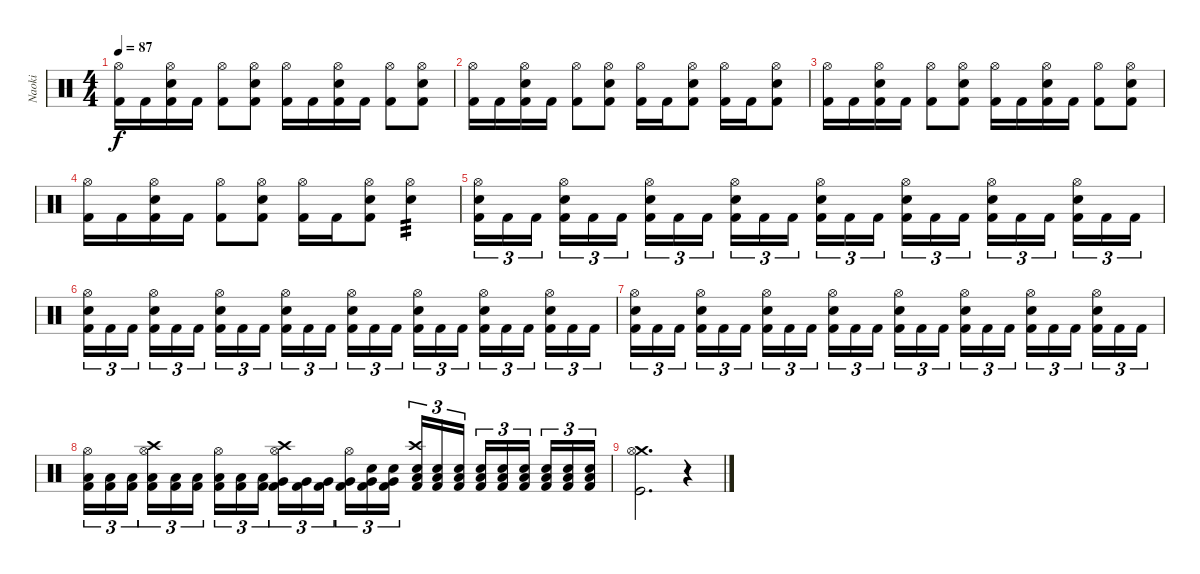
\track ("Naoki" "Naoki") {instrument percussion}
\staff {score}
\articulation defaults
\ts (4 4)
\tempo 87
\clef neutral
\ks c
("Hi-Hat (open)" "Kick (hit) 2").16{dy f} "Kick (hit) 2".16 ("Hi-Hat (open)" "Electric Snare (hit)" "Kick (hit) 2").16 "Kick (hit) 2".16 ("Hi-Hat (open)" "Kick (hit) 2").8 ("Hi-Hat (open)" "Electric Snare (hit)" "Kick (hit) 2").8 ("Hi-Hat (open)" "Kick (hit) 2").16 "Kick (hit) 2".16 ("Hi-Hat (open)" "Electric Snare (hit)" "Kick (hit) 2").16 "Kick (hit) 2".16 ("Hi-Hat (open)" "Kick (hit) 2").8 ("Hi-Hat (open)" "Electric Snare (hit)" "Kick (hit) 2").8 |
("Hi-Hat (open)" "Kick (hit) 2").16 "Kick (hit) 2".16 ("Hi-Hat (open)" "Electric Snare (hit)" "Kick (hit) 2").16 "Kick (hit) 2".16 ("Hi-Hat (open)" "Kick (hit) 2").8 ("Hi-Hat (open)" "Electric Snare (hit)" "Kick (hit) 2").8 ("Hi-Hat (open)" "Kick (hit) 2").16 "Kick (hit) 2".16 ("Hi-Hat (open)" "Electric Snare (hit)" "Kick (hit) 2").8 ("Hi-Hat (open)" "Kick (hit) 2").16 "Kick (hit) 2".16 ("Hi-Hat (open)" "Electric Snare (hit)" "Kick (hit) 2").8 |
("Hi-Hat (open)" "Kick (hit) 2").16 "Kick (hit) 2".16 ("Hi-Hat (open)" "Electric Snare (hit)" "Kick (hit) 2").16 "Kick (hit) 2".16 ("Hi-Hat (open)" "Kick (hit) 2").8 ("Hi-Hat (open)" "Electric Snare (hit)" "Kick (hit) 2").8 ("Hi-Hat (open)" "Kick (hit) 2").16 "Kick (hit) 2".16 ("Hi-Hat (open)" "Electric Snare (hit)" "Kick (hit) 2").16 "Kick (hit) 2".16 ("Hi-Hat (open)" "Kick (hit) 2").8 ("Hi-Hat (open)" "Electric Snare (hit)" "Kick (hit) 2").8 |
("Hi-Hat (open)" "Kick (hit) 2").16 "Kick (hit) 2".16 ("Hi-Hat (open)" "Electric Snare (hit)" "Kick (hit) 2").16 "Kick (hit) 2".16 ("Hi-Hat (open)" "Kick (hit) 2").8 ("Hi-Hat (open)" "Electric Snare (hit)" "Kick (hit) 2").8 ("Hi-Hat (open)" "Kick (hit) 2").16 "Kick (hit) 2".16 ("Hi-Hat (open)" "Electric Snare (hit)" "Kick (hit) 2").8 ("Hi-Hat (open)" "Electric Snare (hit)").4{tp 3} |
("Hi-Hat (open)" "Electric Snare (hit)" "Kick (hit) 2").16{tu (3 2)} "Kick (hit) 2".16{tu (3 2)} "Kick (hit) 2".16{tu (3 2) beam splitsecondary} ("Hi-Hat (open)" "Electric Snare (hit)" "Kick (hit) 2").16{tu (3 2)} "Kick (hit) 2".16{tu (3 2)} "Kick (hit) 2".16{tu (3 2)} ("Hi-Hat (open)" "Electric Snare (hit)" "Kick (hit) 2").16{tu (3 2)} "Kick (hit) 2".16{tu (3 2)} "Kick (hit) 2".16{tu (3 2) beam splitsecondary} ("Hi-Hat (open)" "Electric Snare (hit)" "Kick (hit) 2").16{tu (3 2)} "Kick (hit) 2".16{tu (3 2)} "Kick (hit) 2".16{tu (3 2)} ("Hi-Hat (open)" "Electric Snare (hit)" "Kick (hit) 2").16{tu (3 2)} "Kick (hit) 2".16{tu (3 2)} "Kick (hit) 2".16{tu (3 2) beam splitsecondary} ("Hi-Hat (open)" "Electric Snare (hit)" "Kick (hit) 2").16{tu (3 2)} "Kick (hit) 2".16{tu (3 2)} "Kick (hit) 2".16{tu (3 2)} ("Hi-Hat (open)" "Electric Snare (hit)" "Kick (hit) 2").16{tu (3 2)} "Kick (hit) 2".16{tu (3 2)} "Kick (hit) 2".16{tu (3 2) beam splitsecondary} ("Hi-Hat (open)" "Electric Snare (hit)" "Kick (hit) 2").16{tu (3 2)} "Kick (hit) 2".16{tu (3 2)} "Kick (hit) 2".16{tu (3 2)} |
("Hi-Hat (open)" "Electric Snare (hit)" "Kick (hit) 2").16{tu (3 2)} "Kick (hit) 2".16{tu (3 2)} "Kick (hit) 2".16{tu (3 2) beam splitsecondary} ("Hi-Hat (open)" "Electric Snare (hit)" "Kick (hit) 2").16{tu (3 2)} "Kick (hit) 2".16{tu (3 2)} "Kick (hit) 2".16{tu (3 2)} ("Hi-Hat (open)" "Electric Snare (hit)" "Kick (hit) 2").16{tu (3 2)} "Kick (hit) 2".16{tu (3 2)} "Kick (hit) 2".16{tu (3 2) beam splitsecondary} ("Hi-Hat (open)" "Electric Snare (hit)" "Kick (hit) 2").16{tu (3 2)} "Kick (hit) 2".16{tu (3 2)} "Kick (hit) 2".16{tu (3 2)} ("Hi-Hat (open)" "Electric Snare (hit)" "Kick (hit) 2").16{tu (3 2)} "Kick (hit) 2".16{tu (3 2)} "Kick (hit) 2".16{tu (3 2) beam splitsecondary} ("Hi-Hat (open)" "Electric Snare (hit)" "Kick (hit) 2").16{tu (3 2)} "Kick (hit) 2".16{tu (3 2)} "Kick (hit) 2".16{tu (3 2)} ("Hi-Hat (open)" "Electric Snare (hit)" "Kick (hit) 2").16{tu (3 2)} "Kick (hit) 2".16{tu (3 2)} "Kick (hit) 2".16{tu (3 2) beam splitsecondary} ("Hi-Hat (open)" "Electric Snare (hit)" "Kick (hit) 2").16{tu (3 2)} "Kick (hit) 2".16{tu (3 2)} "Kick (hit) 2".16{tu (3 2)} |
("Hi-Hat (open)" "Electric Snare (hit)" "Kick (hit) 2").16{tu (3 2)} "Kick (hit) 2".16{tu (3 2)} "Kick (hit) 2".16{tu (3 2) beam splitsecondary} ("Hi-Hat (open)" "Electric Snare (hit)" "Kick (hit) 2").16{tu (3 2)} "Kick (hit) 2".16{tu (3 2)} "Kick (hit) 2".16{tu (3 2)} ("Hi-Hat (open)" "Electric Snare (hit)" "Kick (hit) 2").16{tu (3 2)} "Kick (hit) 2".16{tu (3 2)} "Kick (hit) 2".16{tu (3 2) beam splitsecondary} ("Hi-Hat (open)" "Electric Snare (hit)" "Kick (hit) 2").16{tu (3 2)} "Kick (hit) 2".16{tu (3 2)} "Kick (hit) 2".16{tu (3 2)} ("Hi-Hat (open)" "Electric Snare (hit)" "Kick (hit) 2").16{tu (3 2)} "Kick (hit) 2".16{tu (3 2)} "Kick (hit) 2".16{tu (3 2) beam splitsecondary} ("Hi-Hat (open)" "Electric Snare (hit)" "Kick (hit) 2").16{tu (3 2)} "Kick (hit) 2".16{tu (3 2)} "Kick (hit) 2".16{tu (3 2)} ("Hi-Hat (open)" "Electric Snare (hit)" "Kick (hit) 2").16{tu (3 2)} "Kick (hit) 2".16{tu (3 2)} "Kick (hit) 2".16{tu (3 2) beam splitsecondary} ("Hi-Hat (open)" "Electric Snare (hit)" "Kick (hit) 2").16{tu (3 2)} "Kick (hit) 2".16{tu (3 2)} "Kick (hit) 2".16{tu (3 2)} |
("Hi-Hat (open)" "Low Tom (hit)" "Kick (hit) 2").16{tu (3 2)} ("Low Tom (hit)" "Kick (hit) 2").16{tu (3 2)} ("Low Tom (hit)" "Kick (hit) 2").16{tu (3 2) beam splitsecondary} ("Crash high (hit)" "Hi-Hat (open)" "Low Tom (hit)" "Kick (hit) 2").16{tu (3 2)} ("Low Tom (hit)" "Kick (hit) 2").16{tu (3 2)} ("Low Tom (hit)" "Kick (hit) 2").16{tu (3 2)} ("Hi-Hat (open)" "Low Tom (hit)" "Kick (hit) 2").16{tu (3 2)} ("Low Tom (hit)" "Kick (hit) 2").16{tu (3 2)} ("Low Tom (hit)" "Kick (hit) 2").16{tu (3 2) beam splitsecondary} ("Crash high (hit)" "Hi-Hat (open)" "Very Low Tom (hit)" "Kick (hit) 2").16{tu (3 2)} ("Very Low Tom (hit)" "Kick (hit) 2").16{tu (3 2)} ("Very Low Tom (hit)" "Kick (hit) 2").16{tu (3 2)} ("Hi-Hat (open)" "Very Low Tom (hit)" "Kick (hit) 2").16{tu (3 2)} ("Electric Snare (hit)" "Very Low Tom (hit)" "Kick (hit) 2").16{tu (3 2)} ("Electric Snare (hit)" "Very Low Tom (hit)" "Kick (hit) 2").16{tu (3 2) beam splitsecondary} ("Crash high (hit)" "Electric Snare (hit)" "Low Floor Tom (hit)" "Kick (hit) 2").16{tu (3 2)} ("Electric Snare (hit)" "Low Floor Tom (hit)" "Kick (hit) 2").16{tu (3 2)} ("Electric Snare (hit)" "Low Floor Tom (hit)" "Kick (hit) 2").16{tu (3 2)} ("Electric Snare (hit)" "Low Floor Tom (hit)" "Kick (hit) 2").16{tu (3 2)} ("Electric Snare (hit)" "Low Floor Tom (hit)" "Kick (hit) 2").16{tu (3 2)} ("Electric Snare (hit)" "Low Floor Tom (hit)" "Kick (hit) 2").16{tu (3 2) beam splitsecondary} ("Electric Snare (hit)" "Low Floor Tom (hit)" "Kick (hit) 2").16{tu (3 2)} ("Electric Snare (hit)" "Low Floor Tom (hit)" "Kick (hit) 2").16{tu (3 2)} ("Electric Snare (hit)" "Low Floor Tom (hit)" "Kick (hit) 2").16{tu (3 2)} |
("Crash medium (hit)" "Hi-Hat (open)" "Kick (hit)").2{d} r.4
